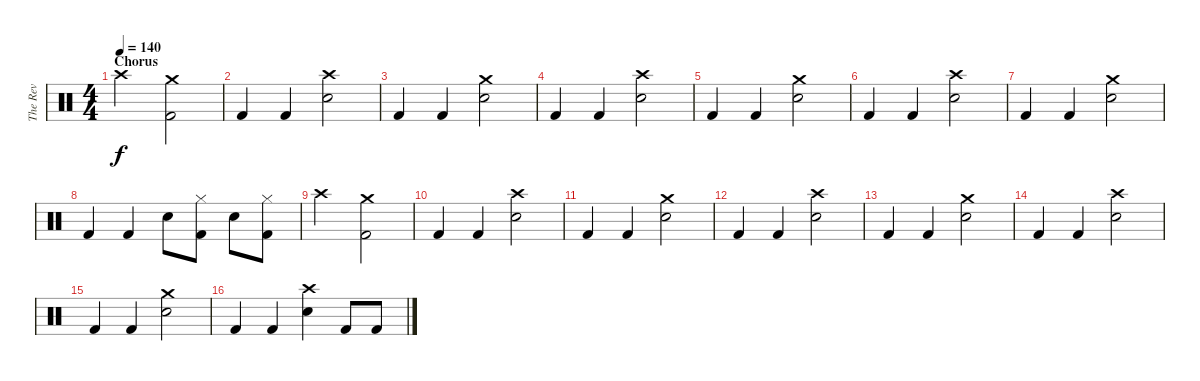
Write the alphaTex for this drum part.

\track ("The Rev" "The Rev") {instrument percussion}
\staff {score}
\articulation defaults
\ts (4 4)
\section ("" "Chorus")
\tempo 140
\clef neutral
\ks c "Crash high (hit)".2{dy f}
("Crash medium (hit)" "Kick (hit) 2").2 |
"Kick (hit) 2".4 "Kick (hit) 2".4 ("Crash high (hit)" "Snare (hit) 2").2 |
"Kick (hit) 2".4 "Kick (hit) 2".4 ("Crash medium (hit)" "Snare (hit) 2").2 |
"Kick (hit) 2".4 "Kick (hit) 2".4 ("Crash high (hit)" "Snare (hit) 2").2 |
"Kick (hit) 2".4 "Kick (hit) 2".4 ("Crash medium (hit)" "Snare (hit) 2").2 |
"Kick (hit) 2".4 "Kick (hit) 2".4 ("Crash high (hit)" "Snare (hit) 2").2 |
"Kick (hit) 2".4 "Kick (hit) 2".4 ("Crash medium (hit)" "Snare (hit) 2").2 |
"Kick (hit) 2".4 "Kick (hit) 2".4 "Snare (hit) 2".8 ("Hi-Hat (closed)" "Kick (hit) 2").8 "Snare (hit) 2".8 ("Hi-Hat (closed)" "Kick (hit) 2").8 |
"Crash high (hit)".2 ("Crash medium (hit)" "Kick (hit) 2").2 |
"Kick (hit) 2".4 "Kick (hit) 2".4 ("Crash high (hit)" "Snare (hit) 2").2 |
"Kick (hit) 2".4 "Kick (hit) 2".4 ("Crash medium (hit)" "Snare (hit) 2").2 |
"Kick (hit) 2".4 "Kick (hit) 2".4 ("Crash high (hit)" "Snare (hit) 2").2 |
"Kick (hit) 2".4 "Kick (hit) 2".4 ("Crash medium (hit)" "Snare (hit) 2").2 |
"Kick (hit) 2".4 "Kick (hit) 2".4 ("Crash high (hit)" "Snare (hit) 2").2 |
"Kick (hit) 2".4 "Kick (hit) 2".4 ("Crash medium (hit)" "Snare (hit) 2").2 |
"Kick (hit) 2".4 "Kick (hit) 2".4 ("Crash high (hit)" "Snare (hit) 2").4 "Kick (hit) 2".8 "Kick (hit) 2".8
